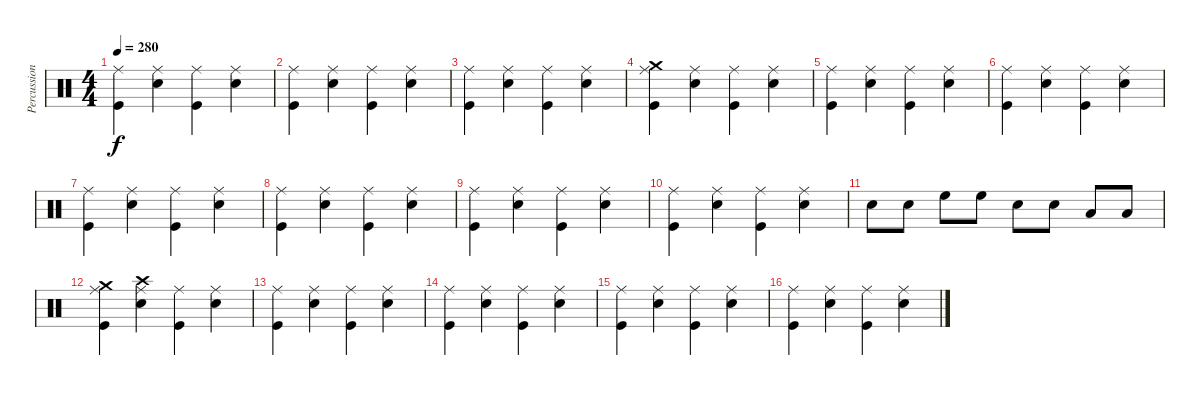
\track ("Percussion" "Percussion") {instrument percussion}
\staff {score}
\articulation defaults
\ts (4 4)
\tempo 280
\clef neutral
\ks c
("Ride (middle)" "Kick (hit)").4{dy f} ("Ride (middle)" "Snare (hit) 2").4 ("Ride (middle)" "Kick (hit)").4 ("Ride (middle)" "Snare (hit) 2").4 |
("Ride (middle)" "Kick (hit)").4 ("Ride (middle)" "Snare (hit) 2").4 ("Ride (middle)" "Kick (hit)").4 ("Ride (middle)" "Snare (hit) 2").4 |
("Ride (middle)" "Kick (hit)").4 ("Ride (middle)" "Snare (hit) 2").4 ("Ride (middle)" "Kick (hit)").4 ("Ride (middle)" "Snare (hit) 2").4 |
("Crash medium (hit)" "Ride (middle)" "Kick (hit)").4 ("Ride (middle)" "Snare (hit) 2").4 ("Ride (middle)" "Kick (hit)").4 ("Ride (middle)" "Snare (hit) 2").4 |
("Ride (middle)" "Kick (hit)").4 ("Ride (middle)" "Snare (hit) 2").4 ("Ride (middle)" "Kick (hit)").4 ("Ride (middle)" "Snare (hit) 2").4 |
("Ride (middle)" "Kick (hit)").4 ("Ride (middle)" "Snare (hit) 2").4 ("Ride (middle)" "Kick (hit)").4 ("Ride (middle)" "Snare (hit) 2").4 |
("Ride (middle)" "Kick (hit)").4 ("Ride (middle)" "Snare (hit) 2").4 ("Ride (middle)" "Kick (hit)").4 ("Ride (middle)" "Snare (hit) 2").4 |
("Ride (middle)" "Kick (hit)").4 ("Ride (middle)" "Snare (hit) 2").4 ("Ride (middle)" "Kick (hit)").4 ("Ride (middle)" "Snare (hit) 2").4 |
("Ride (middle)" "Kick (hit)").4 ("Ride (middle)" "Snare (hit) 2").4 ("Ride (middle)" "Kick (hit)").4 ("Ride (middle)" "Snare (hit) 2").4 |
("Ride (middle)" "Kick (hit)").4 ("Ride (middle)" "Snare (hit) 2").4 ("Ride (middle)" "Kick (hit)").4 ("Ride (middle)" "Snare (hit) 2").4 |
"Snare (hit) 2".8 "Snare (hit) 2".8 "High Floor Tom (hit)".8 "High Floor Tom (hit)".8 "Snare (hit) 2".8 "Snare (hit) 2".8 "Low Tom (hit)".8 "Low Tom (hit)".8 |
("Crash medium (hit)" "Ride (middle)" "Kick (hit)").4 ("Crash high (hit)" "Ride (middle)" "Snare (hit) 2").4 ("Ride (middle)" "Kick (hit)").4 ("Ride (middle)" "Snare (hit) 2").4 |
("Ride (middle)" "Kick (hit)").4 ("Ride (middle)" "Snare (hit) 2").4 ("Ride (middle)" "Kick (hit)").4 ("Ride (middle)" "Snare (hit) 2").4 |
("Ride (middle)" "Kick (hit)").4 ("Ride (middle)" "Snare (hit) 2").4 ("Ride (middle)" "Kick (hit)").4 ("Ride (middle)" "Snare (hit) 2").4 |
("Ride (middle)" "Kick (hit)").4 ("Ride (middle)" "Snare (hit) 2").4 ("Ride (middle)" "Kick (hit)").4 ("Ride (middle)" "Snare (hit) 2").4 |
("Ride (middle)" "Kick (hit)").4 ("Ride (middle)" "Snare (hit) 2").4 ("Ride (middle)" "Kick (hit)").4 ("Ride (middle)" "Snare (hit) 2").4
